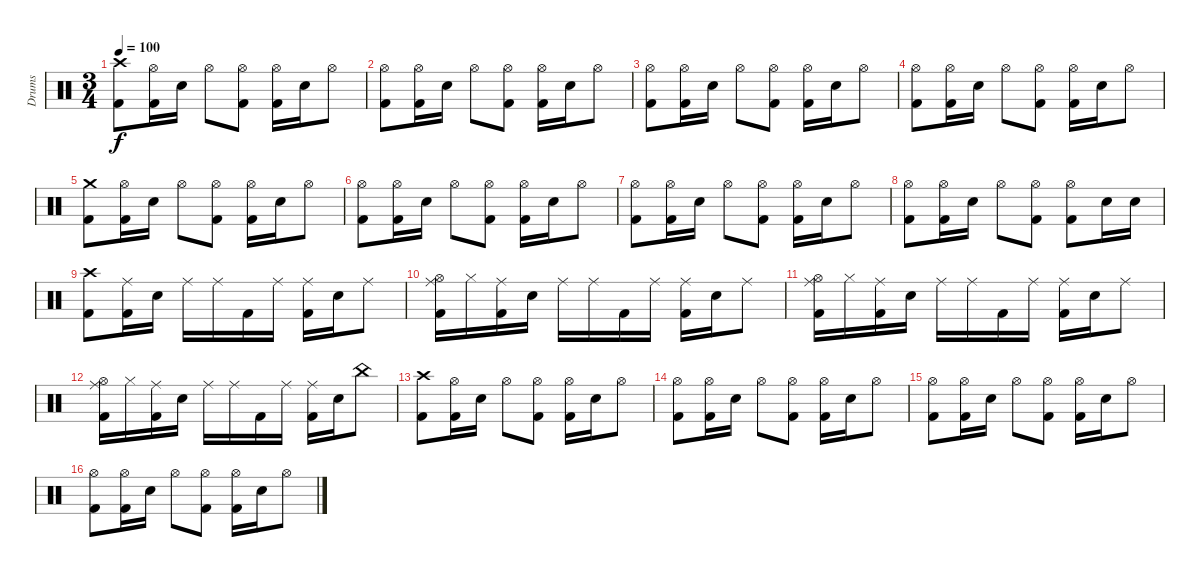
\track ("Drums" "Drums") {instrument percussion}
\staff {score}
\articulation defaults
\ts (3 4)
\tempo 100
\clef neutral
\ks c
("Crash high (hit)" "Kick (hit) 2").8{dy f} ("Hi-Hat (open)" "Kick (hit) 2").16 "Electric Snare (hit)".16 "Hi-Hat (open)".8 ("Hi-Hat (open)" "Kick (hit) 2").8 ("Hi-Hat (open)" "Kick (hit) 2").16 "Electric Snare (hit)".16 "Hi-Hat (open)".8 |
("Hi-Hat (open)" "Kick (hit) 2").8 ("Hi-Hat (open)" "Kick (hit) 2").16 "Electric Snare (hit)".16 "Hi-Hat (open)".8 ("Hi-Hat (open)" "Kick (hit) 2").8 ("Hi-Hat (open)" "Kick (hit) 2").16 "Electric Snare (hit)".16 "Hi-Hat (open)".8 |
("Hi-Hat (open)" "Kick (hit) 2").8 ("Hi-Hat (open)" "Kick (hit) 2").16 "Electric Snare (hit)".16 "Hi-Hat (open)".8 ("Hi-Hat (open)" "Kick (hit) 2").8 ("Hi-Hat (open)" "Kick (hit) 2").16 "Electric Snare (hit)".16 "Hi-Hat (open)".8 |
("Hi-Hat (open)" "Kick (hit) 2").8 ("Hi-Hat (open)" "Kick (hit) 2").16 "Electric Snare (hit)".16 "Hi-Hat (open)".8 ("Hi-Hat (open)" "Kick (hit) 2").8 ("Hi-Hat (open)" "Kick (hit) 2").16 "Electric Snare (hit)".16 "Hi-Hat (open)".8 |
("Crash medium (hit)" "Kick (hit) 2").8 ("Hi-Hat (open)" "Kick (hit) 2").16 "Electric Snare (hit)".16 "Hi-Hat (open)".8 ("Hi-Hat (open)" "Kick (hit) 2").8 ("Hi-Hat (open)" "Kick (hit) 2").16 "Electric Snare (hit)".16 "Hi-Hat (open)".8 |
("Hi-Hat (open)" "Kick (hit) 2").8 ("Hi-Hat (open)" "Kick (hit) 2").16 "Electric Snare (hit)".16 "Hi-Hat (open)".8 ("Hi-Hat (open)" "Kick (hit) 2").8 ("Hi-Hat (open)" "Kick (hit) 2").16 "Electric Snare (hit)".16 "Hi-Hat (open)".8 |
("Hi-Hat (open)" "Kick (hit) 2").8 ("Hi-Hat (open)" "Kick (hit) 2").16 "Electric Snare (hit)".16 "Hi-Hat (open)".8 ("Hi-Hat (open)" "Kick (hit) 2").8 ("Hi-Hat (open)" "Kick (hit) 2").16 "Electric Snare (hit)".16 "Hi-Hat (open)".8 |
("Hi-Hat (open)" "Kick (hit) 2").8 ("Hi-Hat (open)" "Kick (hit) 2").16 "Electric Snare (hit)".16 "Hi-Hat (open)".8 ("Hi-Hat (open)" "Kick (hit) 2").8 ("Hi-Hat (open)" "Kick (hit) 2").8 "Electric Snare (hit)".16 "Electric Snare (hit)".16 |
("Crash high (hit)" "Kick (hit) 2").8 ("Ride (middle)" "Kick (hit) 2").16 "Electric Snare (hit)".16 "Ride (middle)".16 "Ride (middle)".16 "Kick (hit) 2".16 "Ride (middle)".16 ("Ride (middle)" "Kick (hit) 2").16 "Electric Snare (hit)".16 "Ride (middle)".8 |
("Ride (middle)" "Hi-Hat (open)" "Kick (hit) 2").16 "Hi-Hat (closed)".16 ("Ride (middle)" "Kick (hit) 2").16 "Electric Snare (hit)".16 "Ride (middle)".16 "Ride (middle)".16 "Kick (hit) 2".16 "Ride (middle)".16 ("Ride (middle)" "Kick (hit) 2").16 "Electric Snare (hit)".16 "Ride (middle)".8 |
("Ride (middle)" "Hi-Hat (open)" "Kick (hit) 2").16 "Hi-Hat (closed)".16 ("Ride (middle)" "Kick (hit) 2").16 "Electric Snare (hit)".16 "Ride (middle)".16 "Ride (middle)".16 "Kick (hit) 2".16 "Ride (middle)".16 ("Ride (middle)" "Kick (hit) 2").16 "Electric Snare (hit)".16 "Ride (middle)".8 |
("Ride (middle)" "Hi-Hat (open)" "Kick (hit) 2").16 "Hi-Hat (closed)".16 ("Ride (middle)" "Kick (hit) 2").16 "Electric Snare (hit)".16 "Ride (middle)".16 "Ride (middle)".16 "Kick (hit) 2".16 "Ride (middle)".16 ("Ride (middle)" "Kick (hit) 2").16 "Electric Snare (hit)".16 "China (hit)".8 |
("Crash high (hit)" "Kick (hit) 2").8 ("Hi-Hat (open)" "Kick (hit) 2").16 "Electric Snare (hit)".16 "Hi-Hat (open)".8 ("Hi-Hat (open)" "Kick (hit) 2").8 ("Hi-Hat (open)" "Kick (hit) 2").16 "Electric Snare (hit)".16 "Hi-Hat (open)".8 |
("Hi-Hat (open)" "Kick (hit) 2").8 ("Hi-Hat (open)" "Kick (hit) 2").16 "Electric Snare (hit)".16 "Hi-Hat (open)".8 ("Hi-Hat (open)" "Kick (hit) 2").8 ("Hi-Hat (open)" "Kick (hit) 2").16 "Electric Snare (hit)".16 "Hi-Hat (open)".8 |
("Hi-Hat (open)" "Kick (hit) 2").8 ("Hi-Hat (open)" "Kick (hit) 2").16 "Electric Snare (hit)".16 "Hi-Hat (open)".8 ("Hi-Hat (open)" "Kick (hit) 2").8 ("Hi-Hat (open)" "Kick (hit) 2").16 "Electric Snare (hit)".16 "Hi-Hat (open)".8 |
("Hi-Hat (open)" "Kick (hit) 2").8 ("Hi-Hat (open)" "Kick (hit) 2").16 "Electric Snare (hit)".16 "Hi-Hat (open)".8 ("Hi-Hat (open)" "Kick (hit) 2").8 ("Hi-Hat (open)" "Kick (hit) 2").16 "Electric Snare (hit)".16 "Hi-Hat (open)".8
